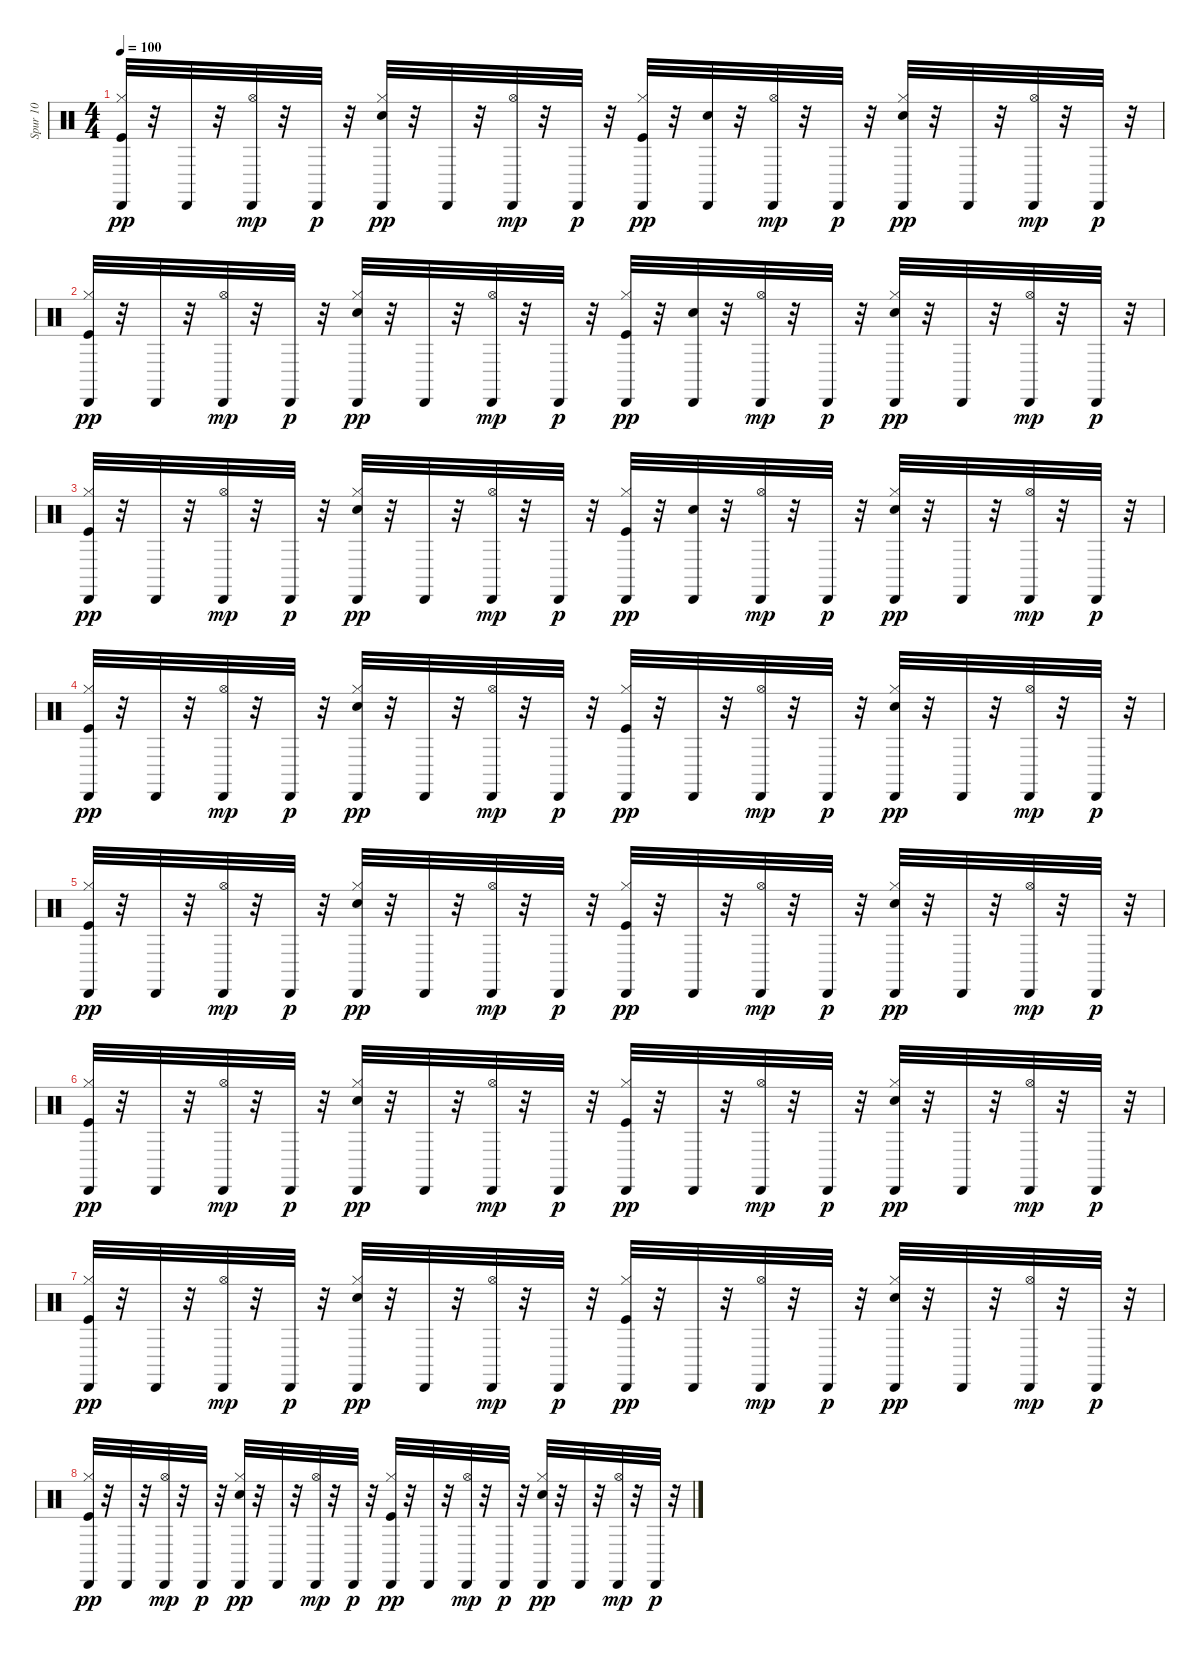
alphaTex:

\track ("Spur 10" "Spur 10") {instrument percussion}
\staff {score}
\articulation defaults
\ts (4 4)
\tempo 100
\clef neutral
\ks c
("Kick (hit)" "Hi-Hat (closed)" "Cabasa (hit)").32{dy pp} r.32 "Cabasa (hit)".32 r.32 ("Hi-Hat (open)" "Cabasa (hit)").32{dy mp} r.32 "Cabasa (hit)".32{dy p} r.32 ("Electric Snare (hit)" "Hi-Hat (closed)" "Cabasa (hit)").32{dy pp} r.32 "Cabasa (hit)".32 r.32 ("Hi-Hat (open)" "Cabasa (hit)").32{dy mp} r.32 "Cabasa (hit)".32{dy p} r.32 ("Kick (hit)" "Hi-Hat (closed)" "Cabasa (hit)").32{dy pp} r.32 ("Electric Snare (hit)" "Cabasa (hit)").32 r.32 ("Hi-Hat (open)" "Cabasa (hit)").32{dy mp} r.32 "Cabasa (hit)".32{dy p} r.32 ("Electric Snare (hit)" "Hi-Hat (closed)" "Cabasa (hit)").32{dy pp} r.32 "Cabasa (hit)".32 r.32 ("Hi-Hat (open)" "Cabasa (hit)").32{dy mp} r.32 "Cabasa (hit)".32{dy p} r.32 |
("Kick (hit)" "Hi-Hat (closed)" "Cabasa (hit)").32{dy pp} r.32 "Cabasa (hit)".32 r.32 ("Hi-Hat (open)" "Cabasa (hit)").32{dy mp} r.32 "Cabasa (hit)".32{dy p} r.32 ("Electric Snare (hit)" "Hi-Hat (closed)" "Cabasa (hit)").32{dy pp} r.32 "Cabasa (hit)".32 r.32 ("Hi-Hat (open)" "Cabasa (hit)").32{dy mp} r.32 "Cabasa (hit)".32{dy p} r.32 ("Kick (hit)" "Hi-Hat (closed)" "Cabasa (hit)").32{dy pp} r.32 ("Electric Snare (hit)" "Cabasa (hit)").32 r.32 ("Hi-Hat (open)" "Cabasa (hit)").32{dy mp} r.32 "Cabasa (hit)".32{dy p} r.32 ("Electric Snare (hit)" "Hi-Hat (closed)" "Cabasa (hit)").32{dy pp} r.32 "Cabasa (hit)".32 r.32 ("Hi-Hat (open)" "Cabasa (hit)").32{dy mp} r.32 "Cabasa (hit)".32{dy p} r.32 |
("Kick (hit)" "Hi-Hat (closed)" "Cabasa (hit)").32{dy pp} r.32 "Cabasa (hit)".32 r.32 ("Hi-Hat (open)" "Cabasa (hit)").32{dy mp} r.32 "Cabasa (hit)".32{dy p} r.32 ("Electric Snare (hit)" "Hi-Hat (closed)" "Cabasa (hit)").32{dy pp} r.32 "Cabasa (hit)".32 r.32 ("Hi-Hat (open)" "Cabasa (hit)").32{dy mp} r.32 "Cabasa (hit)".32{dy p} r.32 ("Kick (hit)" "Hi-Hat (closed)" "Cabasa (hit)").32{dy pp} r.32 ("Electric Snare (hit)" "Cabasa (hit)").32 r.32 ("Hi-Hat (open)" "Cabasa (hit)").32{dy mp} r.32 "Cabasa (hit)".32{dy p} r.32 ("Electric Snare (hit)" "Hi-Hat (closed)" "Cabasa (hit)").32{dy pp} r.32 "Cabasa (hit)".32 r.32 ("Hi-Hat (open)" "Cabasa (hit)").32{dy mp} r.32 "Cabasa (hit)".32{dy p} r.32 |
("Kick (hit)" "Hi-Hat (closed)" "Cabasa (hit)").32{dy pp} r.32 "Cabasa (hit)".32 r.32 ("Hi-Hat (open)" "Cabasa (hit)").32{dy mp} r.32 "Cabasa (hit)".32{dy p} r.32 ("Electric Snare (hit)" "Hi-Hat (closed)" "Cabasa (hit)").32{dy pp} r.32 "Cabasa (hit)".32 r.32 ("Hi-Hat (open)" "Cabasa (hit)").32{dy mp} r.32 "Cabasa (hit)".32{dy p} r.32 ("Kick (hit)" "Hi-Hat (closed)" "Cabasa (hit)").32{dy pp} r.32 "Cabasa (hit)".32 r.32 ("Hi-Hat (open)" "Cabasa (hit)").32{dy mp} r.32 "Cabasa (hit)".32{dy p} r.32 ("Electric Snare (hit)" "Hi-Hat (closed)" "Cabasa (hit)").32{dy pp} r.32 "Cabasa (hit)".32 r.32 ("Hi-Hat (open)" "Cabasa (hit)").32{dy mp} r.32 "Cabasa (hit)".32{dy p} r.32 |
("Kick (hit)" "Hi-Hat (closed)" "Cabasa (hit)").32{dy pp} r.32 "Cabasa (hit)".32 r.32 ("Hi-Hat (open)" "Cabasa (hit)").32{dy mp} r.32 "Cabasa (hit)".32{dy p} r.32 ("Electric Snare (hit)" "Hi-Hat (closed)" "Cabasa (hit)").32{dy pp} r.32 "Cabasa (hit)".32 r.32 ("Hi-Hat (open)" "Cabasa (hit)").32{dy mp} r.32 "Cabasa (hit)".32{dy p} r.32 ("Kick (hit)" "Hi-Hat (closed)" "Cabasa (hit)").32{dy pp} r.32 "Cabasa (hit)".32 r.32 ("Hi-Hat (open)" "Cabasa (hit)").32{dy mp} r.32 "Cabasa (hit)".32{dy p} r.32 ("Electric Snare (hit)" "Hi-Hat (closed)" "Cabasa (hit)").32{dy pp} r.32 "Cabasa (hit)".32 r.32 ("Hi-Hat (open)" "Cabasa (hit)").32{dy mp} r.32 "Cabasa (hit)".32{dy p} r.32 |
("Kick (hit)" "Hi-Hat (closed)" "Cabasa (hit)").32{dy pp} r.32 "Cabasa (hit)".32 r.32 ("Hi-Hat (open)" "Cabasa (hit)").32{dy mp} r.32 "Cabasa (hit)".32{dy p} r.32 ("Electric Snare (hit)" "Hi-Hat (closed)" "Cabasa (hit)").32{dy pp} r.32 "Cabasa (hit)".32 r.32 ("Hi-Hat (open)" "Cabasa (hit)").32{dy mp} r.32 "Cabasa (hit)".32{dy p} r.32 ("Kick (hit)" "Hi-Hat (closed)" "Cabasa (hit)").32{dy pp} r.32 "Cabasa (hit)".32 r.32 ("Hi-Hat (open)" "Cabasa (hit)").32{dy mp} r.32 "Cabasa (hit)".32{dy p} r.32 ("Electric Snare (hit)" "Hi-Hat (closed)" "Cabasa (hit)").32{dy pp} r.32 "Cabasa (hit)".32 r.32 ("Hi-Hat (open)" "Cabasa (hit)").32{dy mp} r.32 "Cabasa (hit)".32{dy p} r.32 |
("Kick (hit)" "Hi-Hat (closed)" "Cabasa (hit)").32{dy pp} r.32 "Cabasa (hit)".32 r.32 ("Hi-Hat (open)" "Cabasa (hit)").32{dy mp} r.32 "Cabasa (hit)".32{dy p} r.32 ("Electric Snare (hit)" "Hi-Hat (closed)" "Cabasa (hit)").32{dy pp} r.32 "Cabasa (hit)".32 r.32 ("Hi-Hat (open)" "Cabasa (hit)").32{dy mp} r.32 "Cabasa (hit)".32{dy p} r.32 ("Kick (hit)" "Hi-Hat (closed)" "Cabasa (hit)").32{dy pp} r.32 "Cabasa (hit)".32 r.32 ("Hi-Hat (open)" "Cabasa (hit)").32{dy mp} r.32 "Cabasa (hit)".32{dy p} r.32 ("Electric Snare (hit)" "Hi-Hat (closed)" "Cabasa (hit)").32{dy pp} r.32 "Cabasa (hit)".32 r.32 ("Hi-Hat (open)" "Cabasa (hit)").32{dy mp} r.32 "Cabasa (hit)".32{dy p} r.32 |
("Kick (hit)" "Hi-Hat (closed)" "Cabasa (hit)").32{dy pp} r.32 "Cabasa (hit)".32 r.32 ("Hi-Hat (open)" "Cabasa (hit)").32{dy mp} r.32 "Cabasa (hit)".32{dy p} r.32 ("Electric Snare (hit)" "Hi-Hat (closed)" "Cabasa (hit)").32{dy pp} r.32 "Cabasa (hit)".32 r.32 ("Hi-Hat (open)" "Cabasa (hit)").32{dy mp} r.32 "Cabasa (hit)".32{dy p} r.32 ("Kick (hit)" "Hi-Hat (closed)" "Cabasa (hit)").32{dy pp} r.32 "Cabasa (hit)".32 r.32 ("Hi-Hat (open)" "Cabasa (hit)").32{dy mp} r.32 "Cabasa (hit)".32{dy p} r.32 ("Electric Snare (hit)" "Hi-Hat (closed)" "Cabasa (hit)").32{dy pp} r.32 "Cabasa (hit)".32 r.32 ("Hi-Hat (open)" "Cabasa (hit)").32{dy mp} r.32 "Cabasa (hit)".32{dy p} r.32
